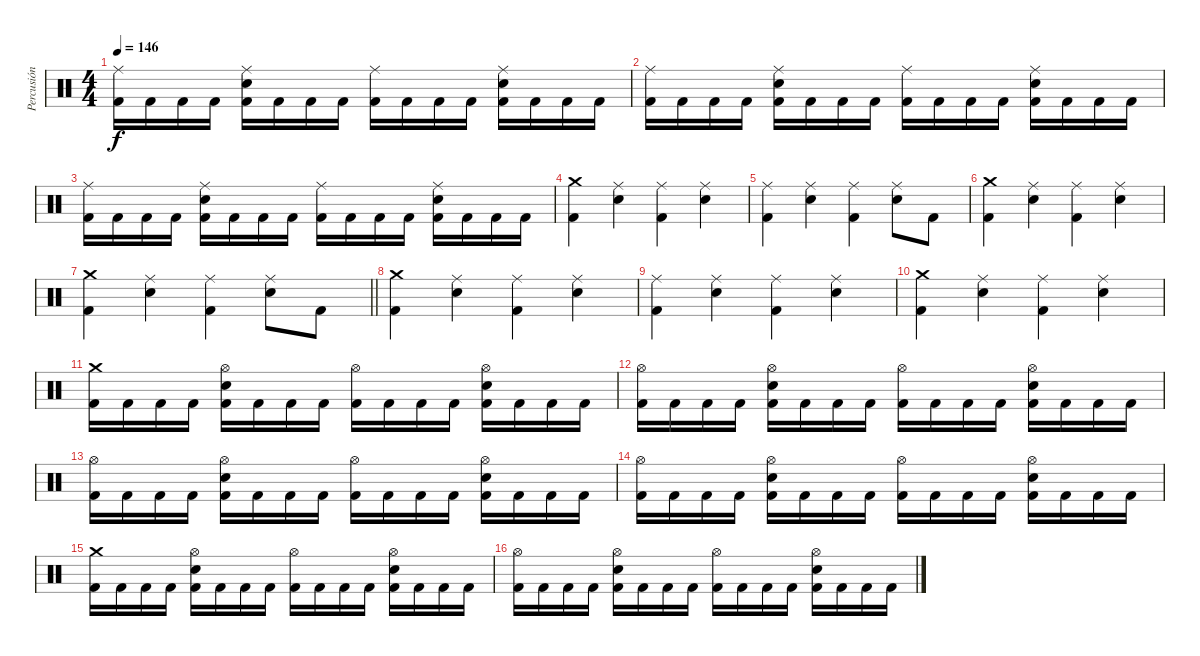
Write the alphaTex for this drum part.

\track ("Percusión" "Percusión") {instrument percussion}
\staff {score}
\articulation defaults
\ts (4 4)
\tempo 146
\clef neutral
\ks c
("Ride (middle)" "Kick (hit) 2").16{dy f} "Kick (hit) 2".16 "Kick (hit) 2".16 "Kick (hit) 2".16 ("Ride (middle)" "Snare (hit) 2" "Kick (hit) 2").16 "Kick (hit) 2".16 "Kick (hit) 2".16 "Kick (hit) 2".16 ("Ride (middle)" "Kick (hit) 2").16 "Kick (hit) 2".16 "Kick (hit) 2".16 "Kick (hit) 2".16 ("Ride (middle)" "Snare (hit) 2" "Kick (hit) 2").16 "Kick (hit) 2".16 "Kick (hit) 2".16 "Kick (hit) 2".16 |
("Ride (middle)" "Kick (hit) 2").16 "Kick (hit) 2".16 "Kick (hit) 2".16 "Kick (hit) 2".16 ("Ride (middle)" "Snare (hit) 2" "Kick (hit) 2").16 "Kick (hit) 2".16 "Kick (hit) 2".16 "Kick (hit) 2".16 ("Ride (middle)" "Kick (hit) 2").16 "Kick (hit) 2".16 "Kick (hit) 2".16 "Kick (hit) 2".16 ("Ride (middle)" "Snare (hit) 2" "Kick (hit) 2").16 "Kick (hit) 2".16 "Kick (hit) 2".16 "Kick (hit) 2".16 |
("Ride (middle)" "Kick (hit) 2").16 "Kick (hit) 2".16 "Kick (hit) 2".16 "Kick (hit) 2".16 ("Ride (middle)" "Snare (hit) 2" "Kick (hit) 2").16 "Kick (hit) 2".16 "Kick (hit) 2".16 "Kick (hit) 2".16 ("Ride (middle)" "Kick (hit) 2").16 "Kick (hit) 2".16 "Kick (hit) 2".16 "Kick (hit) 2".16 ("Ride (middle)" "Snare (hit) 2" "Kick (hit) 2").16 "Kick (hit) 2".16 "Kick (hit) 2".16 "Kick (hit) 2".16 |
("Crash medium (hit)" "Kick (hit) 2").4 ("Ride (middle)" "Snare (hit) 2").4 ("Ride (middle)" "Kick (hit) 2").4 ("Ride (middle)" "Snare (hit) 2").4 |
("Ride (middle)" "Kick (hit) 2").4 ("Ride (middle)" "Snare (hit) 2").4 ("Ride (middle)" "Kick (hit) 2").4 ("Ride (middle)" "Snare (hit) 2").8 "Kick (hit) 2".8 |
("Crash medium (hit)" "Kick (hit) 2").4 ("Ride (middle)" "Snare (hit) 2").4 ("Ride (middle)" "Kick (hit) 2").4 ("Ride (middle)" "Snare (hit) 2").4 |
\barLineRight lightlight
("Crash medium (hit)" "Kick (hit) 2").4 ("Ride (middle)" "Snare (hit) 2").4 ("Ride (middle)" "Kick (hit) 2").4 ("Ride (middle)" "Snare (hit) 2").8 "Kick (hit) 2".8 |
("Crash medium (hit)" "Kick (hit) 2").4 ("Ride (middle)" "Snare (hit) 2").4 ("Ride (middle)" "Kick (hit) 2").4 ("Ride (middle)" "Snare (hit) 2").4 |
("Ride (middle)" "Kick (hit) 2").4 ("Ride (middle)" "Snare (hit) 2").4 ("Ride (middle)" "Kick (hit) 2").4 ("Ride (middle)" "Snare (hit) 2").4 |
("Crash medium (hit)" "Kick (hit) 2").4 ("Ride (middle)" "Snare (hit) 2").4 ("Ride (middle)" "Kick (hit) 2").4 ("Ride (middle)" "Snare (hit) 2").4 |
("Crash medium (hit)" "Kick (hit) 2").16 "Kick (hit) 2".16 "Kick (hit) 2".16 "Kick (hit) 2".16 ("Hi-Hat (open)" "Snare (hit) 2" "Kick (hit) 2").16 "Kick (hit) 2".16 "Kick (hit) 2".16 "Kick (hit) 2".16 ("Hi-Hat (open)" "Kick (hit) 2").16 "Kick (hit) 2".16 "Kick (hit) 2".16 "Kick (hit) 2".16 ("Hi-Hat (open)" "Snare (hit) 2" "Kick (hit) 2").16 "Kick (hit) 2".16 "Kick (hit) 2".16 "Kick (hit) 2".16 |
("Hi-Hat (open)" "Kick (hit) 2").16 "Kick (hit) 2".16 "Kick (hit) 2".16 "Kick (hit) 2".16 ("Hi-Hat (open)" "Snare (hit) 2" "Kick (hit) 2").16 "Kick (hit) 2".16 "Kick (hit) 2".16 "Kick (hit) 2".16 ("Hi-Hat (open)" "Kick (hit) 2").16 "Kick (hit) 2".16 "Kick (hit) 2".16 "Kick (hit) 2".16 ("Hi-Hat (open)" "Snare (hit) 2" "Kick (hit) 2").16 "Kick (hit) 2".16 "Kick (hit) 2".16 "Kick (hit) 2".16 |
("Hi-Hat (open)" "Kick (hit) 2").16 "Kick (hit) 2".16 "Kick (hit) 2".16 "Kick (hit) 2".16 ("Hi-Hat (open)" "Snare (hit) 2" "Kick (hit) 2").16 "Kick (hit) 2".16 "Kick (hit) 2".16 "Kick (hit) 2".16 ("Hi-Hat (open)" "Kick (hit) 2").16 "Kick (hit) 2".16 "Kick (hit) 2".16 "Kick (hit) 2".16 ("Hi-Hat (open)" "Snare (hit) 2" "Kick (hit) 2").16 "Kick (hit) 2".16 "Kick (hit) 2".16 "Kick (hit) 2".16 |
("Hi-Hat (open)" "Kick (hit) 2").16 "Kick (hit) 2".16 "Kick (hit) 2".16 "Kick (hit) 2".16 ("Hi-Hat (open)" "Snare (hit) 2" "Kick (hit) 2").16 "Kick (hit) 2".16 "Kick (hit) 2".16 "Kick (hit) 2".16 ("Hi-Hat (open)" "Kick (hit) 2").16 "Kick (hit) 2".16 "Kick (hit) 2".16 "Kick (hit) 2".16 ("Hi-Hat (open)" "Snare (hit) 2" "Kick (hit) 2").16 "Kick (hit) 2".16 "Kick (hit) 2".16 "Kick (hit) 2".16 |
("Crash medium (hit)" "Kick (hit) 2").16 "Kick (hit) 2".16 "Kick (hit) 2".16 "Kick (hit) 2".16 ("Hi-Hat (open)" "Snare (hit) 2" "Kick (hit) 2").16 "Kick (hit) 2".16 "Kick (hit) 2".16 "Kick (hit) 2".16 ("Hi-Hat (open)" "Kick (hit) 2").16 "Kick (hit) 2".16 "Kick (hit) 2".16 "Kick (hit) 2".16 ("Hi-Hat (open)" "Snare (hit) 2" "Kick (hit) 2").16 "Kick (hit) 2".16 "Kick (hit) 2".16 "Kick (hit) 2".16 |
("Hi-Hat (open)" "Kick (hit) 2").16 "Kick (hit) 2".16 "Kick (hit) 2".16 "Kick (hit) 2".16 ("Hi-Hat (open)" "Snare (hit) 2" "Kick (hit) 2").16 "Kick (hit) 2".16 "Kick (hit) 2".16 "Kick (hit) 2".16 ("Hi-Hat (open)" "Kick (hit) 2").16 "Kick (hit) 2".16 "Kick (hit) 2".16 "Kick (hit) 2".16 ("Hi-Hat (open)" "Snare (hit) 2" "Kick (hit) 2").16 "Kick (hit) 2".16 "Kick (hit) 2".16 "Kick (hit) 2".16
